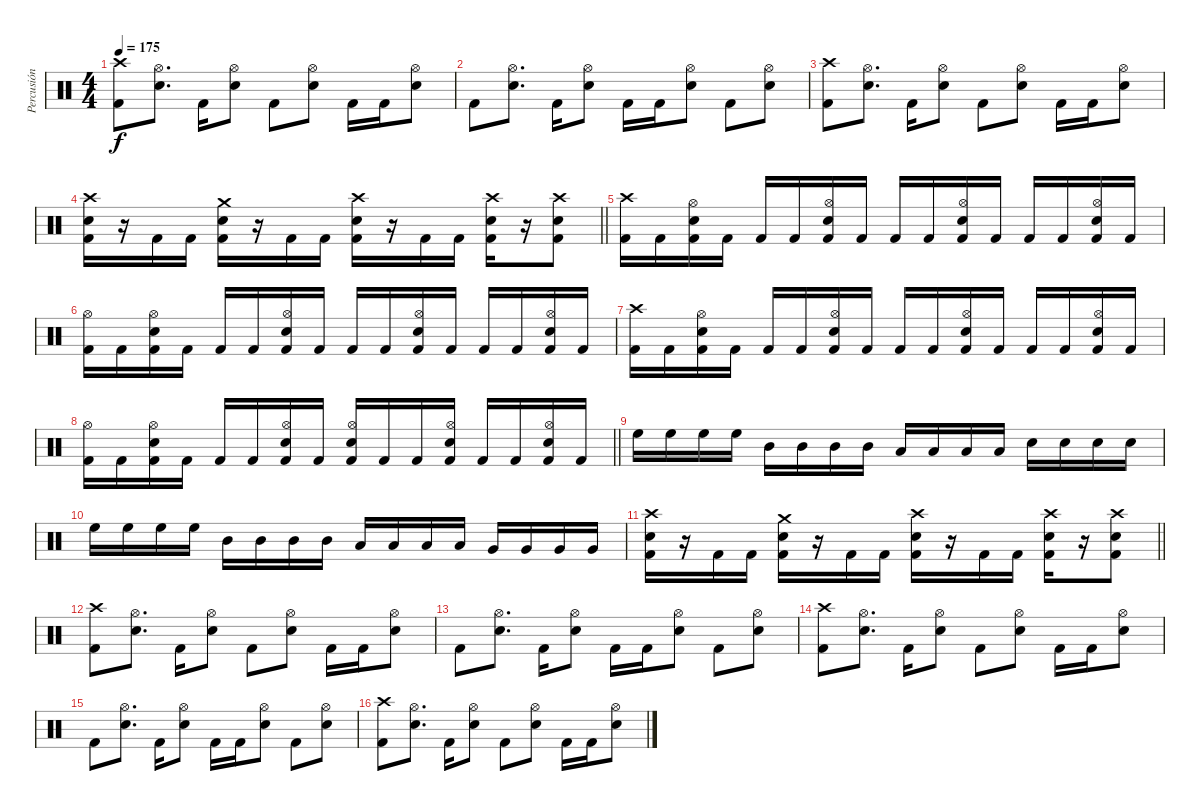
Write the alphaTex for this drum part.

\track ("Percusión" "Percusión") {instrument percussion}
\staff {score}
\articulation defaults
\ts (4 4)
\tempo 175
\clef neutral
\ks c
("Crash high (hit)" "Kick (hit) 2").8{dy f} ("Hi-Hat (open)" "Electric Snare (hit)").8{d} "Kick (hit) 2".16 ("Hi-Hat (open)" "Electric Snare (hit)").8 "Kick (hit) 2".8 ("Hi-Hat (open)" "Electric Snare (hit)").8 "Kick (hit) 2".16 "Kick (hit) 2".16 ("Hi-Hat (open)" "Electric Snare (hit)").8 |
"Kick (hit) 2".8 ("Hi-Hat (open)" "Electric Snare (hit)").8{d} "Kick (hit) 2".16 ("Hi-Hat (open)" "Electric Snare (hit)").8 "Kick (hit) 2".16 "Kick (hit) 2".16 ("Hi-Hat (open)" "Electric Snare (hit)").8 "Kick (hit) 2".8 ("Hi-Hat (open)" "Electric Snare (hit)").8 |
("Crash high (hit)" "Kick (hit) 2").8 ("Hi-Hat (open)" "Electric Snare (hit)").8{d} "Kick (hit) 2".16 ("Hi-Hat (open)" "Electric Snare (hit)").8 "Kick (hit) 2".8 ("Hi-Hat (open)" "Electric Snare (hit)").8 "Kick (hit) 2".16 "Kick (hit) 2".16 ("Hi-Hat (open)" "Electric Snare (hit)").8 |
\barLineRight lightlight
("Crash high (hit)" "Electric Snare (hit)" "Kick (hit) 2").16 r.16 "Kick (hit) 2".16 "Kick (hit) 2".16 ("Crash medium (hit)" "Electric Snare (hit)" "Kick (hit) 2").16 r.16 "Kick (hit) 2".16 "Kick (hit) 2".16 ("Crash high (hit)" "Electric Snare (hit)" "Kick (hit) 2").16 r.16 "Kick (hit) 2".16 "Kick (hit) 2".16 ("Crash high (hit)" "Electric Snare (hit)" "Kick (hit) 2").16 r.16 ("Crash high (hit)" "Electric Snare (hit)" "Kick (hit) 2").8 |
("Crash high (hit)" "Kick (hit) 2").16 "Kick (hit) 2".16 ("Hi-Hat (open)" "Electric Snare (hit)" "Kick (hit) 2").16 "Kick (hit) 2".16 "Kick (hit) 2".16 "Kick (hit) 2".16 ("Hi-Hat (open)" "Electric Snare (hit)" "Kick (hit) 2").16 "Kick (hit) 2".16 "Kick (hit) 2".16 "Kick (hit) 2".16 ("Hi-Hat (open)" "Electric Snare (hit)" "Kick (hit) 2").16 "Kick (hit) 2".16 "Kick (hit) 2".16 "Kick (hit) 2".16 ("Hi-Hat (open)" "Electric Snare (hit)" "Kick (hit) 2").16 "Kick (hit) 2".16 |
("Hi-Hat (open)" "Kick (hit) 2").16 "Kick (hit) 2".16 ("Hi-Hat (open)" "Electric Snare (hit)" "Kick (hit) 2").16 "Kick (hit) 2".16 "Kick (hit) 2".16 "Kick (hit) 2".16 ("Hi-Hat (open)" "Electric Snare (hit)" "Kick (hit) 2").16 "Kick (hit) 2".16 "Kick (hit) 2".16 "Kick (hit) 2".16 ("Hi-Hat (open)" "Electric Snare (hit)" "Kick (hit) 2").16 "Kick (hit) 2".16 "Kick (hit) 2".16 "Kick (hit) 2".16 ("Hi-Hat (open)" "Electric Snare (hit)" "Kick (hit) 2").16 "Kick (hit) 2".16 |
("Crash high (hit)" "Kick (hit) 2").16 "Kick (hit) 2".16 ("Hi-Hat (open)" "Electric Snare (hit)" "Kick (hit) 2").16 "Kick (hit) 2".16 "Kick (hit) 2".16 "Kick (hit) 2".16 ("Hi-Hat (open)" "Electric Snare (hit)" "Kick (hit) 2").16 "Kick (hit) 2".16 "Kick (hit) 2".16 "Kick (hit) 2".16 ("Hi-Hat (open)" "Electric Snare (hit)" "Kick (hit) 2").16 "Kick (hit) 2".16 "Kick (hit) 2".16 "Kick (hit) 2".16 ("Hi-Hat (open)" "Electric Snare (hit)" "Kick (hit) 2").16 "Kick (hit) 2".16 |
\barLineRight lightlight
("Hi-Hat (open)" "Kick (hit) 2").16 "Kick (hit) 2".16 ("Hi-Hat (open)" "Electric Snare (hit)" "Kick (hit) 2").16 "Kick (hit) 2".16 "Kick (hit) 2".16 "Kick (hit) 2".16 ("Hi-Hat (open)" "Electric Snare (hit)" "Kick (hit) 2").16 "Kick (hit) 2".16 ("Hi-Hat (open)" "Electric Snare (hit)" "Kick (hit) 2").16 "Kick (hit) 2".16 "Kick (hit) 2".16 ("Hi-Hat (open)" "Electric Snare (hit)" "Kick (hit) 2").16 "Kick (hit) 2".16 "Kick (hit) 2".16 ("Hi-Hat (open)" "Electric Snare (hit)" "Kick (hit) 2").16 "Kick (hit) 2".16 |
"High Floor Tom (hit)".16 "High Floor Tom (hit)".16 "High Floor Tom (hit)".16 "High Floor Tom (hit)".16 "Mid Tom (hit)".16 "Mid Tom (hit)".16 "Mid Tom (hit)".16 "Mid Tom (hit)".16 "Low Floor Tom (hit)".16 "Low Floor Tom (hit)".16 "Low Floor Tom (hit)".16 "Low Floor Tom (hit)".16 "Electric Snare (hit)".16 "Electric Snare (hit)".16 "Electric Snare (hit)".16 "Electric Snare (hit)".16 |
"High Floor Tom (hit)".16 "High Floor Tom (hit)".16 "High Floor Tom (hit)".16 "High Floor Tom (hit)".16 "Mid Tom (hit)".16 "Mid Tom (hit)".16 "Mid Tom (hit)".16 "Mid Tom (hit)".16 "Low Floor Tom (hit)".16 "Low Floor Tom (hit)".16 "Low Floor Tom (hit)".16 "Low Floor Tom (hit)".16 "Very Low Tom (hit)".16 "Very Low Tom (hit)".16 "Very Low Tom (hit)".16 "Very Low Tom (hit)".16 |
\barLineRight lightlight
("Crash high (hit)" "Electric Snare (hit)" "Kick (hit) 2").16 r.16 "Kick (hit) 2".16 "Kick (hit) 2".16 ("Crash medium (hit)" "Electric Snare (hit)" "Kick (hit) 2").16 r.16 "Kick (hit) 2".16 "Kick (hit) 2".16 ("Crash high (hit)" "Electric Snare (hit)" "Kick (hit) 2").16 r.16 "Kick (hit) 2".16 "Kick (hit) 2".16 ("Crash high (hit)" "Electric Snare (hit)" "Kick (hit) 2").16 r.16 ("Crash high (hit)" "Electric Snare (hit)" "Kick (hit) 2").8 |
("Crash high (hit)" "Kick (hit) 2").8 ("Hi-Hat (open)" "Electric Snare (hit)").8{d} "Kick (hit) 2".16 ("Hi-Hat (open)" "Electric Snare (hit)").8 "Kick (hit) 2".8 ("Hi-Hat (open)" "Electric Snare (hit)").8 "Kick (hit) 2".16 "Kick (hit) 2".16 ("Hi-Hat (open)" "Electric Snare (hit)").8 |
"Kick (hit) 2".8 ("Hi-Hat (open)" "Electric Snare (hit)").8{d} "Kick (hit) 2".16 ("Hi-Hat (open)" "Electric Snare (hit)").8 "Kick (hit) 2".16 "Kick (hit) 2".16 ("Hi-Hat (open)" "Electric Snare (hit)").8 "Kick (hit) 2".8 ("Hi-Hat (open)" "Electric Snare (hit)").8 |
("Crash high (hit)" "Kick (hit) 2").8 ("Hi-Hat (open)" "Electric Snare (hit)").8{d} "Kick (hit) 2".16 ("Hi-Hat (open)" "Electric Snare (hit)").8 "Kick (hit) 2".8 ("Hi-Hat (open)" "Electric Snare (hit)").8 "Kick (hit) 2".16 "Kick (hit) 2".16 ("Hi-Hat (open)" "Electric Snare (hit)").8 |
"Kick (hit) 2".8 ("Hi-Hat (open)" "Electric Snare (hit)").8{d} "Kick (hit) 2".16 ("Hi-Hat (open)" "Electric Snare (hit)").8 "Kick (hit) 2".16 "Kick (hit) 2".16 ("Hi-Hat (open)" "Electric Snare (hit)").8 "Kick (hit) 2".8 ("Hi-Hat (open)" "Electric Snare (hit)").8 |
("Crash high (hit)" "Kick (hit) 2").8 ("Hi-Hat (open)" "Electric Snare (hit)").8{d} "Kick (hit) 2".16 ("Hi-Hat (open)" "Electric Snare (hit)").8 "Kick (hit) 2".8 ("Hi-Hat (open)" "Electric Snare (hit)").8 "Kick (hit) 2".16 "Kick (hit) 2".16 ("Hi-Hat (open)" "Electric Snare (hit)").8
